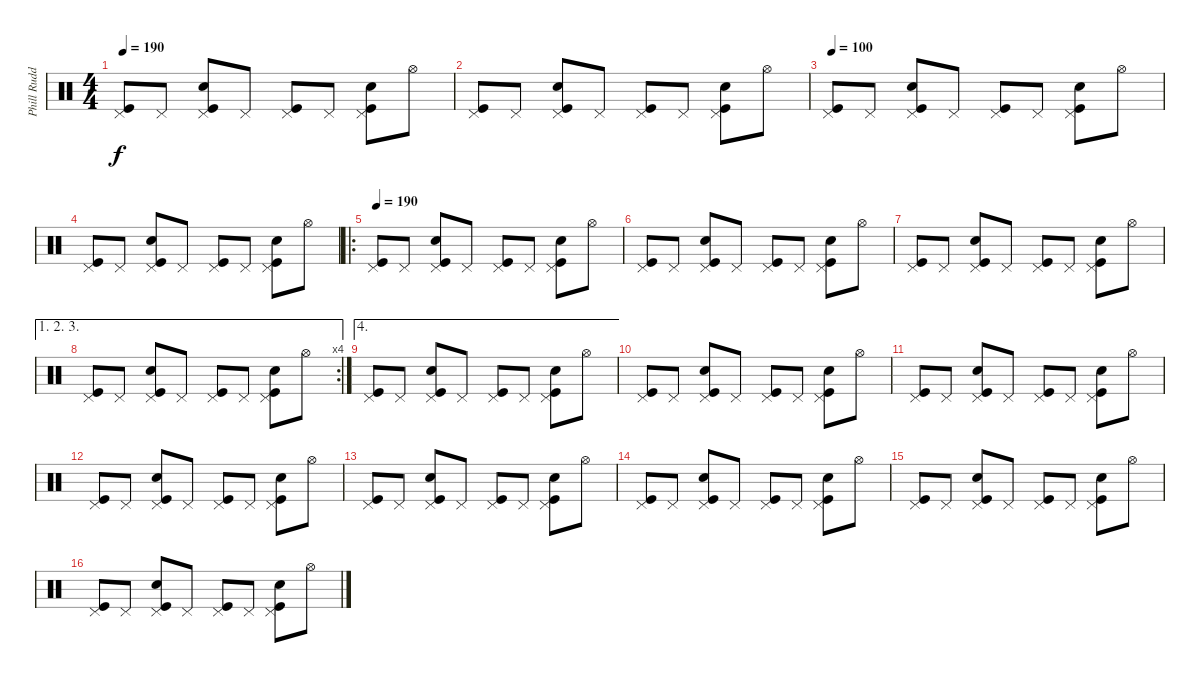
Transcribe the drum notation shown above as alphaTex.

\track ("Phill Rudd (Drums)" "Phill Rudd") {instrument percussion}
\staff {score}
\articulation defaults
\ts (4 4)
\tempo 190
\clef neutral
\ks c
("Pedal Hi-Hat (hit)" "Kick (hit)").8{dy f} "Pedal Hi-Hat (hit)".8 ("Pedal Hi-Hat (hit)" "Snare (hit) 2" "Kick (hit)").8 "Pedal Hi-Hat (hit)".8 ("Pedal Hi-Hat (hit)" "Kick (hit)").8 "Pedal Hi-Hat (hit)".8 ("Pedal Hi-Hat (hit)" "Snare (hit) 2" "Kick (hit)").8 "Hi-Hat (open)".8 |
("Pedal Hi-Hat (hit)" "Kick (hit)").8 "Pedal Hi-Hat (hit)".8 ("Pedal Hi-Hat (hit)" "Snare (hit) 2" "Kick (hit)").8 "Pedal Hi-Hat (hit)".8 ("Pedal Hi-Hat (hit)" "Kick (hit)").8 "Pedal Hi-Hat (hit)".8 ("Pedal Hi-Hat (hit)" "Snare (hit) 2" "Kick (hit)").8 "Hi-Hat (open)".8 |
\tempo 100
("Pedal Hi-Hat (hit)" "Kick (hit)").8 "Pedal Hi-Hat (hit)".8 ("Pedal Hi-Hat (hit)" "Snare (hit) 2" "Kick (hit)").8 "Pedal Hi-Hat (hit)".8 ("Pedal Hi-Hat (hit)" "Kick (hit)").8 "Pedal Hi-Hat (hit)".8 ("Pedal Hi-Hat (hit)" "Snare (hit) 2" "Kick (hit)").8 "Hi-Hat (open)".8 |
("Pedal Hi-Hat (hit)" "Kick (hit)").8 "Pedal Hi-Hat (hit)".8 ("Pedal Hi-Hat (hit)" "Snare (hit) 2" "Kick (hit)").8 "Pedal Hi-Hat (hit)".8 ("Pedal Hi-Hat (hit)" "Kick (hit)").8 "Pedal Hi-Hat (hit)".8 ("Pedal Hi-Hat (hit)" "Snare (hit) 2" "Kick (hit)").8 "Hi-Hat (open)".8 |
\ro
\tempo 190
("Pedal Hi-Hat (hit)" "Kick (hit)").8 "Pedal Hi-Hat (hit)".8 ("Pedal Hi-Hat (hit)" "Snare (hit) 2" "Kick (hit)").8 "Pedal Hi-Hat (hit)".8 ("Pedal Hi-Hat (hit)" "Kick (hit)").8 "Pedal Hi-Hat (hit)".8 ("Pedal Hi-Hat (hit)" "Snare (hit) 2" "Kick (hit)").8 "Hi-Hat (open)".8 |
("Pedal Hi-Hat (hit)" "Kick (hit)").8 "Pedal Hi-Hat (hit)".8 ("Pedal Hi-Hat (hit)" "Snare (hit) 2" "Kick (hit)").8 "Pedal Hi-Hat (hit)".8 ("Pedal Hi-Hat (hit)" "Kick (hit)").8 "Pedal Hi-Hat (hit)".8 ("Pedal Hi-Hat (hit)" "Snare (hit) 2" "Kick (hit)").8 "Hi-Hat (open)".8 |
("Pedal Hi-Hat (hit)" "Kick (hit)").8 "Pedal Hi-Hat (hit)".8 ("Pedal Hi-Hat (hit)" "Snare (hit) 2" "Kick (hit)").8 "Pedal Hi-Hat (hit)".8 ("Pedal Hi-Hat (hit)" "Kick (hit)").8 "Pedal Hi-Hat (hit)".8 ("Pedal Hi-Hat (hit)" "Snare (hit) 2" "Kick (hit)").8 "Hi-Hat (open)".8 |
\ae (1 2 3)
\rc 4
("Pedal Hi-Hat (hit)" "Kick (hit)").8 "Pedal Hi-Hat (hit)".8 ("Pedal Hi-Hat (hit)" "Snare (hit) 2" "Kick (hit)").8 "Pedal Hi-Hat (hit)".8 ("Pedal Hi-Hat (hit)" "Kick (hit)").8 "Pedal Hi-Hat (hit)".8 ("Pedal Hi-Hat (hit)" "Snare (hit) 2" "Kick (hit)").8 "Hi-Hat (open)".8 |
\ae 4
("Pedal Hi-Hat (hit)" "Kick (hit)").8 "Pedal Hi-Hat (hit)".8 ("Pedal Hi-Hat (hit)" "Snare (hit) 2" "Kick (hit)").8 "Pedal Hi-Hat (hit)".8 ("Pedal Hi-Hat (hit)" "Kick (hit)").8 "Pedal Hi-Hat (hit)".8 ("Pedal Hi-Hat (hit)" "Snare (hit) 2" "Kick (hit)").8 "Hi-Hat (open)".8 |
("Pedal Hi-Hat (hit)" "Kick (hit)").8 "Pedal Hi-Hat (hit)".8 ("Pedal Hi-Hat (hit)" "Snare (hit) 2" "Kick (hit)").8 "Pedal Hi-Hat (hit)".8 ("Pedal Hi-Hat (hit)" "Kick (hit)").8 "Pedal Hi-Hat (hit)".8 ("Pedal Hi-Hat (hit)" "Snare (hit) 2" "Kick (hit)").8 "Hi-Hat (open)".8 |
("Pedal Hi-Hat (hit)" "Kick (hit)").8 "Pedal Hi-Hat (hit)".8 ("Pedal Hi-Hat (hit)" "Snare (hit) 2" "Kick (hit)").8 "Pedal Hi-Hat (hit)".8 ("Pedal Hi-Hat (hit)" "Kick (hit)").8 "Pedal Hi-Hat (hit)".8 ("Pedal Hi-Hat (hit)" "Snare (hit) 2" "Kick (hit)").8 "Hi-Hat (open)".8 |
("Pedal Hi-Hat (hit)" "Kick (hit)").8 "Pedal Hi-Hat (hit)".8 ("Pedal Hi-Hat (hit)" "Snare (hit) 2" "Kick (hit)").8 "Pedal Hi-Hat (hit)".8 ("Pedal Hi-Hat (hit)" "Kick (hit)").8 "Pedal Hi-Hat (hit)".8 ("Pedal Hi-Hat (hit)" "Snare (hit) 2" "Kick (hit)").8 "Hi-Hat (open)".8 |
("Pedal Hi-Hat (hit)" "Kick (hit)").8 "Pedal Hi-Hat (hit)".8 ("Pedal Hi-Hat (hit)" "Snare (hit) 2" "Kick (hit)").8 "Pedal Hi-Hat (hit)".8 ("Pedal Hi-Hat (hit)" "Kick (hit)").8 "Pedal Hi-Hat (hit)".8 ("Pedal Hi-Hat (hit)" "Snare (hit) 2" "Kick (hit)").8 "Hi-Hat (open)".8 |
("Pedal Hi-Hat (hit)" "Kick (hit)").8 "Pedal Hi-Hat (hit)".8 ("Pedal Hi-Hat (hit)" "Snare (hit) 2" "Kick (hit)").8 "Pedal Hi-Hat (hit)".8 ("Pedal Hi-Hat (hit)" "Kick (hit)").8 "Pedal Hi-Hat (hit)".8 ("Pedal Hi-Hat (hit)" "Snare (hit) 2" "Kick (hit)").8 "Hi-Hat (open)".8 |
("Pedal Hi-Hat (hit)" "Kick (hit)").8 "Pedal Hi-Hat (hit)".8 ("Pedal Hi-Hat (hit)" "Snare (hit) 2" "Kick (hit)").8 "Pedal Hi-Hat (hit)".8 ("Pedal Hi-Hat (hit)" "Kick (hit)").8 "Pedal Hi-Hat (hit)".8 ("Pedal Hi-Hat (hit)" "Snare (hit) 2" "Kick (hit)").8 "Hi-Hat (open)".8 |
("Pedal Hi-Hat (hit)" "Kick (hit)").8 "Pedal Hi-Hat (hit)".8 ("Pedal Hi-Hat (hit)" "Snare (hit) 2" "Kick (hit)").8 "Pedal Hi-Hat (hit)".8 ("Pedal Hi-Hat (hit)" "Kick (hit)").8 "Pedal Hi-Hat (hit)".8 ("Pedal Hi-Hat (hit)" "Snare (hit) 2" "Kick (hit)").8 "Hi-Hat (open)".8
